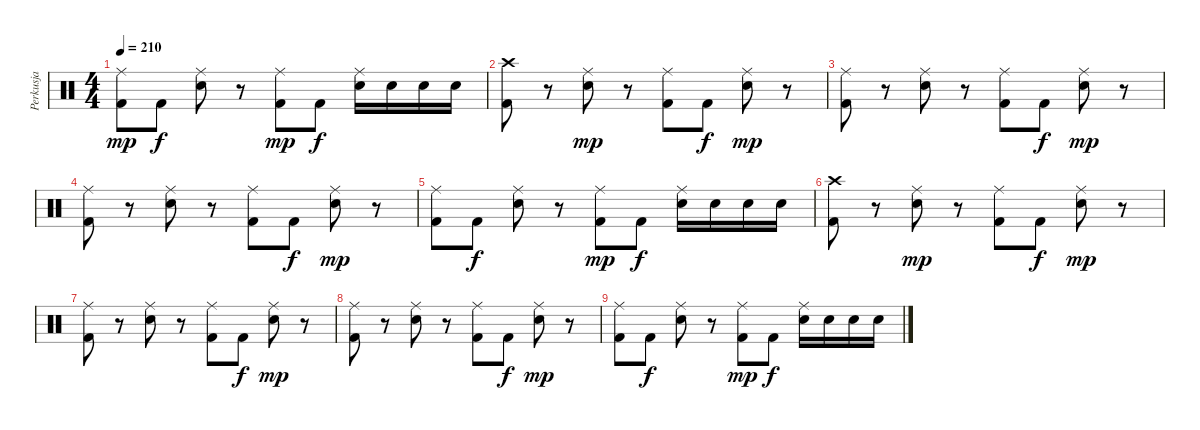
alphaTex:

\track ("Perkusja" "Perkusja") {instrument percussion}
\staff {score}
\articulation defaults
\ts (4 4)
\tempo 210
\clef neutral
\ks c
("Ride (middle)" "Kick (hit) 2").8{dy mp} "Kick (hit) 2".8{dy f} ("Ride (middle)" "Snare (hit) 2").8 r.8 ("Ride (middle)" "Kick (hit) 2").8{dy mp} "Kick (hit) 2".8{dy f} ("Ride (middle)" "Snare (hit) 2").16 "Snare (hit) 2".16 "Snare (hit) 2".16 "Snare (hit) 2".16 |
("Crash high (hit)" "Kick (hit) 2").8 r.8 ("Ride (middle)" "Snare (hit) 2").8{dy mp} r.8 ("Ride (middle)" "Kick (hit) 2").8 "Kick (hit) 2".8{dy f} ("Ride (middle)" "Snare (hit) 2").8{dy mp} r.8 |
("Ride (middle)" "Kick (hit) 2").8 r.8 ("Ride (middle)" "Snare (hit) 2").8 r.8 ("Ride (middle)" "Kick (hit) 2").8 "Kick (hit) 2".8{dy f} ("Ride (middle)" "Snare (hit) 2").8{dy mp} r.8 |
("Ride (middle)" "Kick (hit) 2").8 r.8 ("Ride (middle)" "Snare (hit) 2").8 r.8 ("Ride (middle)" "Kick (hit) 2").8 "Kick (hit) 2".8{dy f} ("Ride (middle)" "Snare (hit) 2").8{dy mp} r.8 |
("Ride (middle)" "Kick (hit) 2").8 "Kick (hit) 2".8{dy f} ("Ride (middle)" "Snare (hit) 2").8 r.8 ("Ride (middle)" "Kick (hit) 2").8{dy mp} "Kick (hit) 2".8{dy f} ("Ride (middle)" "Snare (hit) 2").16 "Snare (hit) 2".16 "Snare (hit) 2".16 "Snare (hit) 2".16 |
("Crash high (hit)" "Kick (hit) 2").8 r.8 ("Ride (middle)" "Snare (hit) 2").8{dy mp} r.8 ("Ride (middle)" "Kick (hit) 2").8 "Kick (hit) 2".8{dy f} ("Ride (middle)" "Snare (hit) 2").8{dy mp} r.8 |
("Ride (middle)" "Kick (hit) 2").8 r.8 ("Ride (middle)" "Snare (hit) 2").8 r.8 ("Ride (middle)" "Kick (hit) 2").8 "Kick (hit) 2".8{dy f} ("Ride (middle)" "Snare (hit) 2").8{dy mp} r.8 |
("Ride (middle)" "Kick (hit) 2").8 r.8 ("Ride (middle)" "Snare (hit) 2").8 r.8 ("Ride (middle)" "Kick (hit) 2").8 "Kick (hit) 2".8{dy f} ("Ride (middle)" "Snare (hit) 2").8{dy mp} r.8 |
("Ride (middle)" "Kick (hit) 2").8 "Kick (hit) 2".8{dy f} ("Ride (middle)" "Snare (hit) 2").8 r.8 ("Ride (middle)" "Kick (hit) 2").8{dy mp} "Kick (hit) 2".8{dy f} ("Ride (middle)" "Snare (hit) 2").16 "Snare (hit) 2".16 "Snare (hit) 2".16 "Snare (hit) 2".16
